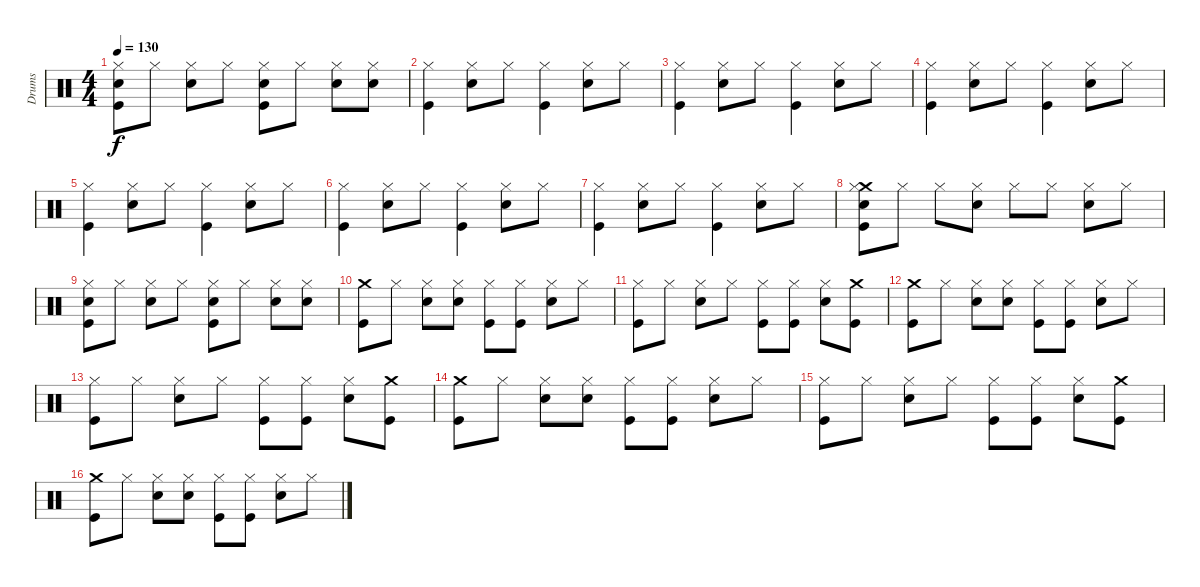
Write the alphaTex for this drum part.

\track ("Drums" "Drums") {instrument percussion}
\staff {score}
\articulation defaults
\ts (4 4)
\tempo 130
\clef neutral
\ks c
("Snare (hit) 2" "Hi-Hat (closed)" "Kick (hit)").8{dy f} "Hi-Hat (closed)".8 ("Snare (hit) 2" "Hi-Hat (closed)").8 "Hi-Hat (closed)".8 ("Snare (hit) 2" "Hi-Hat (closed)" "Kick (hit)").8 "Hi-Hat (closed)".8 ("Snare (hit) 2" "Hi-Hat (closed)").8 ("Snare (hit) 2" "Hi-Hat (closed)").8 |
("Hi-Hat (closed)" "Kick (hit)").4 ("Snare (hit) 2" "Hi-Hat (closed)").8 "Hi-Hat (closed)".8 ("Hi-Hat (closed)" "Kick (hit)").4 ("Snare (hit) 2" "Hi-Hat (closed)").8 "Hi-Hat (closed)".8 |
("Hi-Hat (closed)" "Kick (hit)").4 ("Snare (hit) 2" "Hi-Hat (closed)").8 "Hi-Hat (closed)".8 ("Hi-Hat (closed)" "Kick (hit)").4 ("Snare (hit) 2" "Hi-Hat (closed)").8 "Hi-Hat (closed)".8 |
("Hi-Hat (closed)" "Kick (hit)").4 ("Snare (hit) 2" "Hi-Hat (closed)").8 "Hi-Hat (closed)".8 ("Hi-Hat (closed)" "Kick (hit)").4 ("Snare (hit) 2" "Hi-Hat (closed)").8 "Hi-Hat (closed)".8 |
("Hi-Hat (closed)" "Kick (hit)").4 ("Snare (hit) 2" "Hi-Hat (closed)").8 "Hi-Hat (closed)".8 ("Hi-Hat (closed)" "Kick (hit)").4 ("Snare (hit) 2" "Hi-Hat (closed)").8 "Hi-Hat (closed)".8 |
("Hi-Hat (closed)" "Kick (hit)").4 ("Snare (hit) 2" "Hi-Hat (closed)").8 "Hi-Hat (closed)".8 ("Hi-Hat (closed)" "Kick (hit)").4 ("Snare (hit) 2" "Hi-Hat (closed)").8 "Hi-Hat (closed)".8 |
("Hi-Hat (closed)" "Kick (hit)").4 ("Snare (hit) 2" "Hi-Hat (closed)").8 "Hi-Hat (closed)".8 ("Hi-Hat (closed)" "Kick (hit)").4 ("Snare (hit) 2" "Hi-Hat (closed)").8 "Hi-Hat (closed)".8 |
("Crash medium (hit)" "Snare (hit) 2" "Hi-Hat (closed)" "Kick (hit)").8 "Hi-Hat (closed)".8 "Hi-Hat (closed)".8 ("Snare (hit) 2" "Hi-Hat (closed)").8 "Hi-Hat (closed)".8 "Hi-Hat (closed)".8 ("Snare (hit) 2" "Hi-Hat (closed)").8 "Hi-Hat (closed)".8 |
("Snare (hit) 2" "Hi-Hat (closed)" "Kick (hit)").8 "Hi-Hat (closed)".8 ("Snare (hit) 2" "Hi-Hat (closed)").8 "Hi-Hat (closed)".8 ("Snare (hit) 2" "Hi-Hat (closed)" "Kick (hit)").8 "Hi-Hat (closed)".8 ("Snare (hit) 2" "Hi-Hat (closed)").8 ("Snare (hit) 2" "Hi-Hat (closed)").8 |
("Crash medium (hit)" "Kick (hit)").8 "Hi-Hat (closed)".8 ("Snare (hit) 2" "Hi-Hat (closed)").8 ("Snare (hit) 2" "Hi-Hat (closed)").8 ("Hi-Hat (closed)" "Kick (hit)").8 ("Hi-Hat (closed)" "Kick (hit)").8 ("Snare (hit) 2" "Hi-Hat (closed)").8 "Hi-Hat (closed)".8 |
("Hi-Hat (closed)" "Kick (hit)").8 "Hi-Hat (closed)".8 ("Snare (hit) 2" "Hi-Hat (closed)").8 "Hi-Hat (closed)".8 ("Hi-Hat (closed)" "Kick (hit)").8 ("Hi-Hat (closed)" "Kick (hit)").8 ("Snare (hit) 2" "Hi-Hat (closed)").8 ("Crash medium (hit)" "Kick (hit)").8 |
("Crash medium (hit)" "Kick (hit)").8 "Hi-Hat (closed)".8 ("Snare (hit) 2" "Hi-Hat (closed)").8 ("Snare (hit) 2" "Hi-Hat (closed)").8 ("Hi-Hat (closed)" "Kick (hit)").8 ("Hi-Hat (closed)" "Kick (hit)").8 ("Snare (hit) 2" "Hi-Hat (closed)").8 "Hi-Hat (closed)".8 |
("Hi-Hat (closed)" "Kick (hit)").8 "Hi-Hat (closed)".8 ("Snare (hit) 2" "Hi-Hat (closed)").8 "Hi-Hat (closed)".8 ("Hi-Hat (closed)" "Kick (hit)").8 ("Hi-Hat (closed)" "Kick (hit)").8 ("Snare (hit) 2" "Hi-Hat (closed)").8 ("Crash medium (hit)" "Kick (hit)").8 |
("Crash medium (hit)" "Kick (hit)").8 "Hi-Hat (closed)".8 ("Snare (hit) 2" "Hi-Hat (closed)").8 ("Snare (hit) 2" "Hi-Hat (closed)").8 ("Hi-Hat (closed)" "Kick (hit)").8 ("Hi-Hat (closed)" "Kick (hit)").8 ("Snare (hit) 2" "Hi-Hat (closed)").8 "Hi-Hat (closed)".8 |
("Hi-Hat (closed)" "Kick (hit)").8 "Hi-Hat (closed)".8 ("Snare (hit) 2" "Hi-Hat (closed)").8 "Hi-Hat (closed)".8 ("Hi-Hat (closed)" "Kick (hit)").8 ("Hi-Hat (closed)" "Kick (hit)").8 ("Snare (hit) 2" "Hi-Hat (closed)").8 ("Crash medium (hit)" "Kick (hit)").8 |
("Crash medium (hit)" "Kick (hit)").8 "Hi-Hat (closed)".8 ("Snare (hit) 2" "Hi-Hat (closed)").8 ("Snare (hit) 2" "Hi-Hat (closed)").8 ("Hi-Hat (closed)" "Kick (hit)").8 ("Hi-Hat (closed)" "Kick (hit)").8 ("Snare (hit) 2" "Hi-Hat (closed)").8 "Hi-Hat (closed)".8
